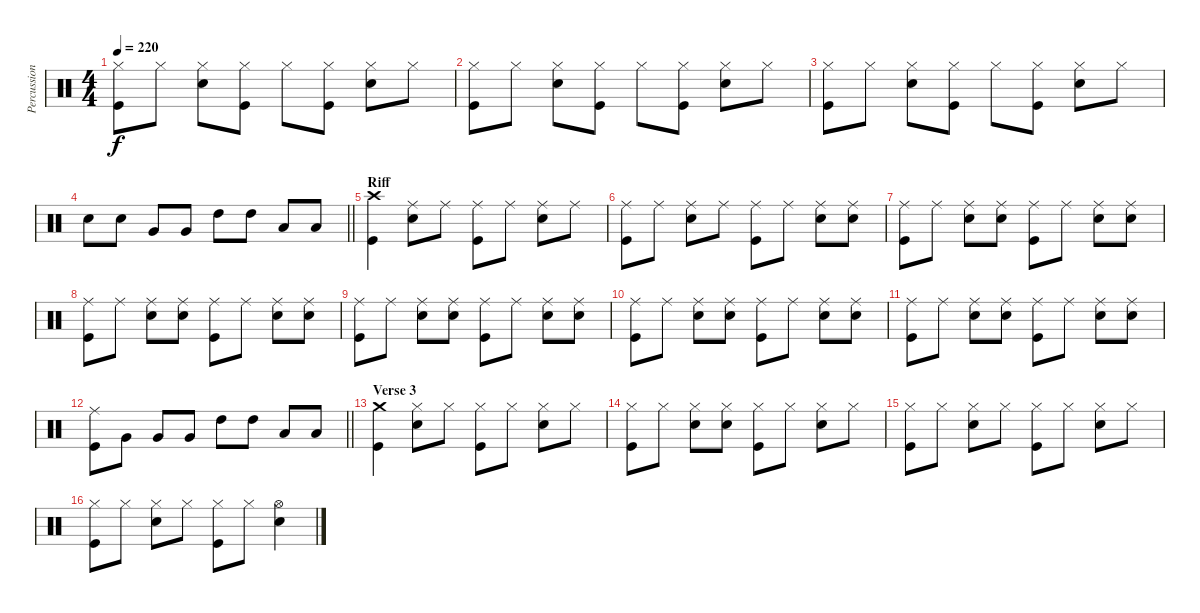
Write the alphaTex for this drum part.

\track ("Percussion" "Percussion") {instrument percussion}
\staff {score}
\articulation defaults
\ts (4 4)
\tempo 220
\clef neutral
\ks c
("Kick (hit)" "Hi-Hat (closed)").8{dy f} "Hi-Hat (closed)".8 ("Hi-Hat (closed)" "Snare (hit) 2").8 ("Kick (hit)" "Hi-Hat (closed)").8 "Hi-Hat (closed)".8 ("Kick (hit)" "Hi-Hat (closed)").8 ("Hi-Hat (closed)" "Snare (hit) 2").8 "Hi-Hat (closed)".8 |
("Kick (hit)" "Hi-Hat (closed)").8 "Hi-Hat (closed)".8 ("Hi-Hat (closed)" "Snare (hit) 2").8 ("Kick (hit)" "Hi-Hat (closed)").8 "Hi-Hat (closed)".8 ("Kick (hit)" "Hi-Hat (closed)").8 ("Hi-Hat (closed)" "Snare (hit) 2").8 "Hi-Hat (closed)".8 |
("Kick (hit)" "Hi-Hat (closed)").8 "Hi-Hat (closed)".8 ("Hi-Hat (closed)" "Snare (hit) 2").8 ("Kick (hit)" "Hi-Hat (closed)").8 "Hi-Hat (closed)".8 ("Kick (hit)" "Hi-Hat (closed)").8 ("Hi-Hat (closed)" "Snare (hit) 2").8 "Hi-Hat (closed)".8 |
\barLineRight lightlight "Snare (hit) 2".8 "Snare (hit) 2".8 "Very Low Tom (hit)".8 "Very Low Tom (hit)".8 "High Tom (hit)".8 "High Tom (hit)".8 "Low Tom (hit)".8 "Low Tom (hit)".8
|
\section ("" "Riff")
("Kick (hit)" "Crash high (hit)").4 ("Ride (middle)" "Snare (hit) 2").8 "Ride (middle)".8 ("Kick (hit)" "Ride (middle)").8 "Ride (middle)".8 ("Ride (middle)" "Snare (hit) 2").8 "Ride (middle)".8 |
("Kick (hit)" "Ride (middle)").8 "Ride (middle)".8 ("Ride (middle)" "Snare (hit) 2").8 "Ride (middle)".8 ("Kick (hit)" "Ride (middle)").8 "Ride (middle)".8 ("Ride (middle)" "Snare (hit) 2").8 ("Ride (middle)" "Snare (hit) 2").8 |
("Kick (hit)" "Ride (middle)").8 "Ride (middle)".8 ("Ride (middle)" "Snare (hit) 2").8 ("Ride (middle)" "Snare (hit) 2").8 ("Kick (hit)" "Ride (middle)").8 "Ride (middle)".8 ("Ride (middle)" "Snare (hit) 2").8 ("Ride (middle)" "Snare (hit) 2").8 |
("Kick (hit)" "Ride (middle)").8 "Ride (middle)".8 ("Ride (middle)" "Snare (hit) 2").8 ("Ride (middle)" "Snare (hit) 2").8 ("Kick (hit)" "Ride (middle)").8 "Ride (middle)".8 ("Ride (middle)" "Snare (hit) 2").8 ("Ride (middle)" "Snare (hit) 2").8 |
("Kick (hit)" "Ride (middle)").8 "Ride (middle)".8 ("Ride (middle)" "Snare (hit) 2").8 ("Ride (middle)" "Snare (hit) 2").8 ("Kick (hit)" "Ride (middle)").8 "Ride (middle)".8 ("Ride (middle)" "Snare (hit) 2").8 ("Ride (middle)" "Snare (hit) 2").8 |
("Kick (hit)" "Ride (middle)").8 "Ride (middle)".8 ("Ride (middle)" "Snare (hit) 2").8 ("Ride (middle)" "Snare (hit) 2").8 ("Kick (hit)" "Ride (middle)").8 "Ride (middle)".8 ("Ride (middle)" "Snare (hit) 2").8 ("Ride (middle)" "Snare (hit) 2").8 |
("Kick (hit)" "Ride (middle)").8 "Ride (middle)".8 ("Ride (middle)" "Snare (hit) 2").8 ("Ride (middle)" "Snare (hit) 2").8 ("Kick (hit)" "Ride (middle)").8 "Ride (middle)".8 ("Ride (middle)" "Snare (hit) 2").8 ("Ride (middle)" "Snare (hit) 2").8 |
\barLineRight lightlight
("Kick (hit)" "Ride (middle)").8 "Very Low Tom (hit)".8 "Very Low Tom (hit)".8 "Very Low Tom (hit)".8 "High Tom (hit)".8 "High Tom (hit)".8 "Low Tom (hit)".8 "Low Tom (hit)".8 |
\section ("" "Verse 3")
("Kick (hit)" "Crash medium (hit)").4 ("Hi-Hat (closed)" "Snare (hit) 2").8 "Hi-Hat (closed)".8 ("Kick (hit)" "Hi-Hat (closed)").8 "Hi-Hat (closed)".8 ("Hi-Hat (closed)" "Snare (hit) 2").8 "Hi-Hat (closed)".8 |
("Kick (hit)" "Hi-Hat (closed)").8 "Hi-Hat (closed)".8 ("Hi-Hat (closed)" "Snare (hit) 2").8 ("Hi-Hat (closed)" "Snare (hit) 2").8 ("Kick (hit)" "Hi-Hat (closed)").8 "Hi-Hat (closed)".8 ("Hi-Hat (closed)" "Snare (hit) 2").8 "Hi-Hat (closed)".8 |
("Kick (hit)" "Hi-Hat (closed)").8 "Hi-Hat (closed)".8 ("Hi-Hat (closed)" "Snare (hit) 2").8 "Hi-Hat (closed)".8 ("Kick (hit)" "Hi-Hat (closed)").8 "Hi-Hat (closed)".8 ("Hi-Hat (closed)" "Snare (hit) 2").8 "Hi-Hat (closed)".8 |
("Kick (hit)" "Hi-Hat (closed)").8 "Hi-Hat (closed)".8 ("Hi-Hat (closed)" "Snare (hit) 2").8 "Hi-Hat (closed)".8 ("Kick (hit)" "Hi-Hat (closed)").8 "Hi-Hat (closed)".8 ("Hi-Hat (open)" "Snare (hit) 2").4
